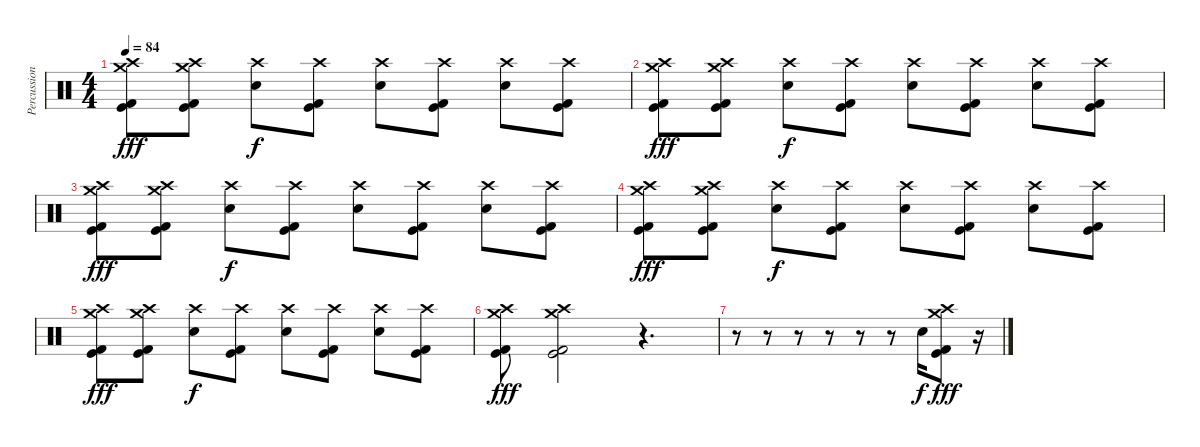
\track ("Percussion" "Percussion") {instrument percussion}
\staff {score}
\articulation defaults
\ts (4 4)
\tempo 84
\clef neutral
\ks c
("Crash high (hit)" "Crash medium (hit)" "Kick (hit) 2" "Kick (hit)").8{dy fff} ("Crash high (hit)" "Crash medium (hit)" "Kick (hit) 2" "Kick (hit)").8 ("Crash high (hit)" "Snare (hit) 2").8{dy f} ("Crash high (hit)" "Kick (hit) 2" "Kick (hit)").8 ("Crash high (hit)" "Snare (hit) 2").8 ("Crash high (hit)" "Kick (hit) 2" "Kick (hit)").8 ("Crash high (hit)" "Snare (hit) 2").8 ("Crash high (hit)" "Kick (hit) 2" "Kick (hit)").8 |
("Crash high (hit)" "Crash medium (hit)" "Kick (hit) 2" "Kick (hit)").8{dy fff} ("Crash high (hit)" "Crash medium (hit)" "Kick (hit) 2" "Kick (hit)").8 ("Crash high (hit)" "Snare (hit) 2").8{dy f} ("Crash high (hit)" "Kick (hit) 2" "Kick (hit)").8 ("Crash high (hit)" "Snare (hit) 2").8 ("Crash high (hit)" "Kick (hit) 2" "Kick (hit)").8 ("Crash high (hit)" "Snare (hit) 2").8 ("Crash high (hit)" "Kick (hit) 2" "Kick (hit)").8 |
("Crash high (hit)" "Crash medium (hit)" "Kick (hit) 2" "Kick (hit)").8{dy fff} ("Crash high (hit)" "Crash medium (hit)" "Kick (hit) 2" "Kick (hit)").8 ("Crash high (hit)" "Snare (hit) 2").8{dy f} ("Crash high (hit)" "Kick (hit) 2" "Kick (hit)").8 ("Crash high (hit)" "Snare (hit) 2").8 ("Crash high (hit)" "Kick (hit) 2" "Kick (hit)").8 ("Crash high (hit)" "Snare (hit) 2").8 ("Crash high (hit)" "Kick (hit) 2" "Kick (hit)").8 |
("Crash high (hit)" "Crash medium (hit)" "Kick (hit) 2" "Kick (hit)").8{dy fff} ("Crash high (hit)" "Crash medium (hit)" "Kick (hit) 2" "Kick (hit)").8 ("Crash high (hit)" "Snare (hit) 2").8{dy f} ("Crash high (hit)" "Kick (hit) 2" "Kick (hit)").8 ("Crash high (hit)" "Snare (hit) 2").8 ("Crash high (hit)" "Kick (hit) 2" "Kick (hit)").8 ("Crash high (hit)" "Snare (hit) 2").8 ("Crash high (hit)" "Kick (hit) 2" "Kick (hit)").8 |
("Crash high (hit)" "Crash medium (hit)" "Kick (hit) 2" "Kick (hit)").8{dy fff} ("Crash high (hit)" "Crash medium (hit)" "Kick (hit) 2" "Kick (hit)").8 ("Crash high (hit)" "Snare (hit) 2").8{dy f} ("Crash high (hit)" "Kick (hit) 2" "Kick (hit)").8 ("Crash high (hit)" "Snare (hit) 2").8 ("Crash high (hit)" "Kick (hit) 2" "Kick (hit)").8 ("Crash high (hit)" "Snare (hit) 2").8 ("Crash high (hit)" "Kick (hit) 2" "Kick (hit)").8 |
("Crash high (hit)" "Crash medium (hit)" "Kick (hit) 2" "Kick (hit)").8{dy fff} ("Crash high (hit)" "Crash medium (hit)" "Kick (hit) 2" "Kick (hit)").2 r.4{d} |
r.8 r.8 r.8 r.8 r.8 r.8 "Snare (hit) 2".16{dy f} ("Crash high (hit)" "Crash medium (hit)" "Kick (hit) 2" "Kick (hit)").8{dy fff} r.16
